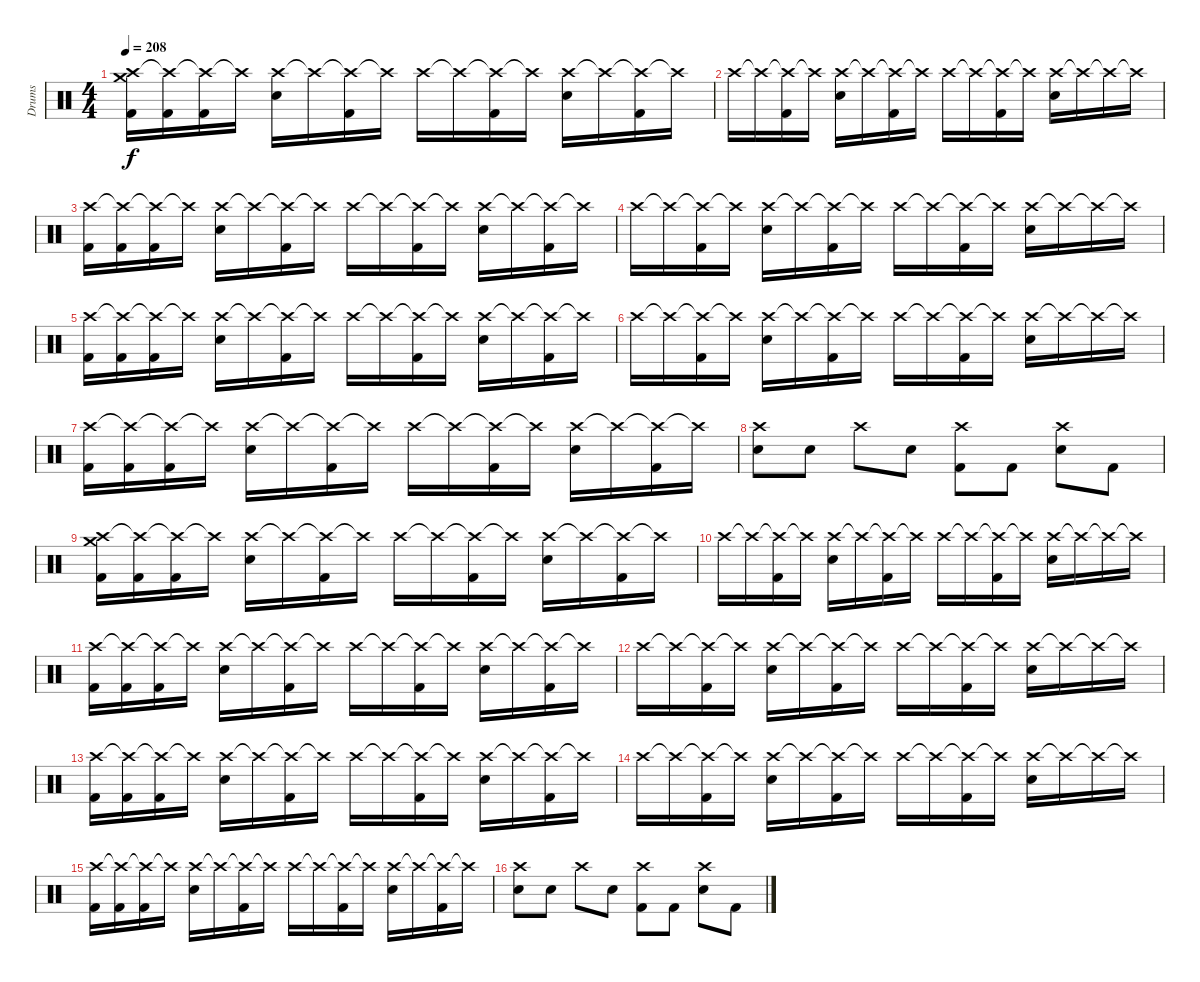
\track ("Drums" "Drums") {instrument percussion}
\staff {score}
\articulation defaults
\ts (4 4)
\tempo 208
\clef neutral
\ks c
("Crash high (hit)" "Crash medium (hit)" "Kick (hit) 2").16{dy f} ("Crash high (hit)"{t} "Kick (hit) 2").16 ("Crash high (hit)"{t} "Kick (hit) 2").16 "Crash high (hit)"{t}.16 ("Crash high (hit)" "Electric Snare (hit)").16 "Crash high (hit)"{t}.16 ("Crash high (hit)"{t} "Kick (hit) 2").16 "Crash high (hit)"{t}.16 "Crash high (hit)".16 "Crash high (hit)"{t}.16 ("Crash high (hit)"{t} "Kick (hit) 2").16 "Crash high (hit)"{t}.16 ("Crash high (hit)" "Electric Snare (hit)").16 "Crash high (hit)"{t}.16 ("Crash high (hit)"{t} "Kick (hit) 2").16 "Crash high (hit)"{t}.16 |
"Crash high (hit)".16 "Crash high (hit)"{t}.16 ("Crash high (hit)"{t} "Kick (hit) 2").16 "Crash high (hit)"{t}.16 ("Crash high (hit)" "Electric Snare (hit)").16 "Crash high (hit)"{t}.16 ("Crash high (hit)"{t} "Kick (hit) 2").16 "Crash high (hit)"{t}.16 "Crash high (hit)".16 "Crash high (hit)"{t}.16 ("Crash high (hit)"{t} "Kick (hit) 2").16 "Crash high (hit)"{t}.16 ("Crash high (hit)" "Electric Snare (hit)").16 "Crash high (hit)"{t}.16 "Crash high (hit)"{t}.16 "Crash high (hit)"{t}.16 |
("Crash high (hit)" "Kick (hit) 2").16 ("Crash high (hit)"{t} "Kick (hit) 2").16 ("Crash high (hit)"{t} "Kick (hit) 2").16 "Crash high (hit)"{t}.16 ("Crash high (hit)" "Electric Snare (hit)").16 "Crash high (hit)"{t}.16 ("Crash high (hit)"{t} "Kick (hit) 2").16 "Crash high (hit)"{t}.16 "Crash high (hit)".16 "Crash high (hit)"{t}.16 ("Crash high (hit)"{t} "Kick (hit) 2").16 "Crash high (hit)"{t}.16 ("Crash high (hit)" "Electric Snare (hit)").16 "Crash high (hit)"{t}.16 ("Crash high (hit)"{t} "Kick (hit) 2").16 "Crash high (hit)"{t}.16 |
"Crash high (hit)".16 "Crash high (hit)"{t}.16 ("Crash high (hit)"{t} "Kick (hit) 2").16 "Crash high (hit)"{t}.16 ("Crash high (hit)" "Electric Snare (hit)").16 "Crash high (hit)"{t}.16 ("Crash high (hit)"{t} "Kick (hit) 2").16 "Crash high (hit)"{t}.16 "Crash high (hit)".16 "Crash high (hit)"{t}.16 ("Crash high (hit)"{t} "Kick (hit) 2").16 "Crash high (hit)"{t}.16 ("Crash high (hit)" "Electric Snare (hit)").16 "Crash high (hit)"{t}.16 "Crash high (hit)"{t}.16 "Crash high (hit)"{t}.16 |
("Crash high (hit)" "Kick (hit) 2").16 ("Crash high (hit)"{t} "Kick (hit) 2").16 ("Crash high (hit)"{t} "Kick (hit) 2").16 "Crash high (hit)"{t}.16 ("Crash high (hit)" "Electric Snare (hit)").16 "Crash high (hit)"{t}.16 ("Crash high (hit)"{t} "Kick (hit) 2").16 "Crash high (hit)"{t}.16 "Crash high (hit)".16 "Crash high (hit)"{t}.16 ("Crash high (hit)"{t} "Kick (hit) 2").16 "Crash high (hit)"{t}.16 ("Crash high (hit)" "Electric Snare (hit)").16 "Crash high (hit)"{t}.16 ("Crash high (hit)"{t} "Kick (hit) 2").16 "Crash high (hit)"{t}.16 |
"Crash high (hit)".16 "Crash high (hit)"{t}.16 ("Crash high (hit)"{t} "Kick (hit) 2").16 "Crash high (hit)"{t}.16 ("Crash high (hit)" "Electric Snare (hit)").16 "Crash high (hit)"{t}.16 ("Crash high (hit)"{t} "Kick (hit) 2").16 "Crash high (hit)"{t}.16 "Crash high (hit)".16 "Crash high (hit)"{t}.16 ("Crash high (hit)"{t} "Kick (hit) 2").16 "Crash high (hit)"{t}.16 ("Crash high (hit)" "Electric Snare (hit)").16 "Crash high (hit)"{t}.16 "Crash high (hit)"{t}.16 "Crash high (hit)"{t}.16 |
("Crash high (hit)" "Kick (hit) 2").16 ("Crash high (hit)"{t} "Kick (hit) 2").16 ("Crash high (hit)"{t} "Kick (hit) 2").16 "Crash high (hit)"{t}.16 ("Crash high (hit)" "Electric Snare (hit)").16 "Crash high (hit)"{t}.16 ("Crash high (hit)"{t} "Kick (hit) 2").16 "Crash high (hit)"{t}.16 "Crash high (hit)".16 "Crash high (hit)"{t}.16 ("Crash high (hit)"{t} "Kick (hit) 2").16 "Crash high (hit)"{t}.16 ("Crash high (hit)" "Electric Snare (hit)").16 "Crash high (hit)"{t}.16 ("Crash high (hit)"{t} "Kick (hit) 2").16 "Crash high (hit)"{t}.16 |
("Crash high (hit)" "Electric Snare (hit)").8 "Electric Snare (hit)".8 "Crash high (hit)".8 "Electric Snare (hit)".8 ("Crash high (hit)" "Kick (hit) 2").8 "Kick (hit) 2".8 ("Crash high (hit)" "Electric Snare (hit)").8 "Kick (hit) 2".8 |
("Crash high (hit)" "Crash medium (hit)" "Kick (hit) 2").16 ("Crash high (hit)"{t} "Kick (hit) 2").16 ("Crash high (hit)"{t} "Kick (hit) 2").16 "Crash high (hit)"{t}.16 ("Crash high (hit)" "Electric Snare (hit)").16 "Crash high (hit)"{t}.16 ("Crash high (hit)"{t} "Kick (hit) 2").16 "Crash high (hit)"{t}.16 "Crash high (hit)".16 "Crash high (hit)"{t}.16 ("Crash high (hit)"{t} "Kick (hit) 2").16 "Crash high (hit)"{t}.16 ("Crash high (hit)" "Electric Snare (hit)").16 "Crash high (hit)"{t}.16 ("Crash high (hit)"{t} "Kick (hit) 2").16 "Crash high (hit)"{t}.16 |
"Crash high (hit)".16 "Crash high (hit)"{t}.16 ("Crash high (hit)"{t} "Kick (hit) 2").16 "Crash high (hit)"{t}.16 ("Crash high (hit)" "Electric Snare (hit)").16 "Crash high (hit)"{t}.16 ("Crash high (hit)"{t} "Kick (hit) 2").16 "Crash high (hit)"{t}.16 "Crash high (hit)".16 "Crash high (hit)"{t}.16 ("Crash high (hit)"{t} "Kick (hit) 2").16 "Crash high (hit)"{t}.16 ("Crash high (hit)" "Electric Snare (hit)").16 "Crash high (hit)"{t}.16 "Crash high (hit)"{t}.16 "Crash high (hit)"{t}.16 |
("Crash high (hit)" "Kick (hit) 2").16 ("Crash high (hit)"{t} "Kick (hit) 2").16 ("Crash high (hit)"{t} "Kick (hit) 2").16 "Crash high (hit)"{t}.16 ("Crash high (hit)" "Electric Snare (hit)").16 "Crash high (hit)"{t}.16 ("Crash high (hit)"{t} "Kick (hit) 2").16 "Crash high (hit)"{t}.16 "Crash high (hit)".16 "Crash high (hit)"{t}.16 ("Crash high (hit)"{t} "Kick (hit) 2").16 "Crash high (hit)"{t}.16 ("Crash high (hit)" "Electric Snare (hit)").16 "Crash high (hit)"{t}.16 ("Crash high (hit)"{t} "Kick (hit) 2").16 "Crash high (hit)"{t}.16 |
"Crash high (hit)".16 "Crash high (hit)"{t}.16 ("Crash high (hit)"{t} "Kick (hit) 2").16 "Crash high (hit)"{t}.16 ("Crash high (hit)" "Electric Snare (hit)").16 "Crash high (hit)"{t}.16 ("Crash high (hit)"{t} "Kick (hit) 2").16 "Crash high (hit)"{t}.16 "Crash high (hit)".16 "Crash high (hit)"{t}.16 ("Crash high (hit)"{t} "Kick (hit) 2").16 "Crash high (hit)"{t}.16 ("Crash high (hit)" "Electric Snare (hit)").16 "Crash high (hit)"{t}.16 "Crash high (hit)"{t}.16 "Crash high (hit)"{t}.16 |
("Crash high (hit)" "Kick (hit) 2").16 ("Crash high (hit)"{t} "Kick (hit) 2").16 ("Crash high (hit)"{t} "Kick (hit) 2").16 "Crash high (hit)"{t}.16 ("Crash high (hit)" "Electric Snare (hit)").16 "Crash high (hit)"{t}.16 ("Crash high (hit)"{t} "Kick (hit) 2").16 "Crash high (hit)"{t}.16 "Crash high (hit)".16 "Crash high (hit)"{t}.16 ("Crash high (hit)"{t} "Kick (hit) 2").16 "Crash high (hit)"{t}.16 ("Crash high (hit)" "Electric Snare (hit)").16 "Crash high (hit)"{t}.16 ("Crash high (hit)"{t} "Kick (hit) 2").16 "Crash high (hit)"{t}.16 |
"Crash high (hit)".16 "Crash high (hit)"{t}.16 ("Crash high (hit)"{t} "Kick (hit) 2").16 "Crash high (hit)"{t}.16 ("Crash high (hit)" "Electric Snare (hit)").16 "Crash high (hit)"{t}.16 ("Crash high (hit)"{t} "Kick (hit) 2").16 "Crash high (hit)"{t}.16 "Crash high (hit)".16 "Crash high (hit)"{t}.16 ("Crash high (hit)"{t} "Kick (hit) 2").16 "Crash high (hit)"{t}.16 ("Crash high (hit)" "Electric Snare (hit)").16 "Crash high (hit)"{t}.16 "Crash high (hit)"{t}.16 "Crash high (hit)"{t}.16 |
("Crash high (hit)" "Kick (hit) 2").16 ("Crash high (hit)"{t} "Kick (hit) 2").16 ("Crash high (hit)"{t} "Kick (hit) 2").16 "Crash high (hit)"{t}.16 ("Crash high (hit)" "Electric Snare (hit)").16 "Crash high (hit)"{t}.16 ("Crash high (hit)"{t} "Kick (hit) 2").16 "Crash high (hit)"{t}.16 "Crash high (hit)".16 "Crash high (hit)"{t}.16 ("Crash high (hit)"{t} "Kick (hit) 2").16 "Crash high (hit)"{t}.16 ("Crash high (hit)" "Electric Snare (hit)").16 "Crash high (hit)"{t}.16 ("Crash high (hit)"{t} "Kick (hit) 2").16 "Crash high (hit)"{t}.16 |
("Crash high (hit)" "Electric Snare (hit)").8 "Electric Snare (hit)".8 "Crash high (hit)".8 "Electric Snare (hit)".8 ("Crash high (hit)" "Kick (hit) 2").8 "Kick (hit) 2".8 ("Crash high (hit)" "Electric Snare (hit)").8 "Kick (hit) 2".8
